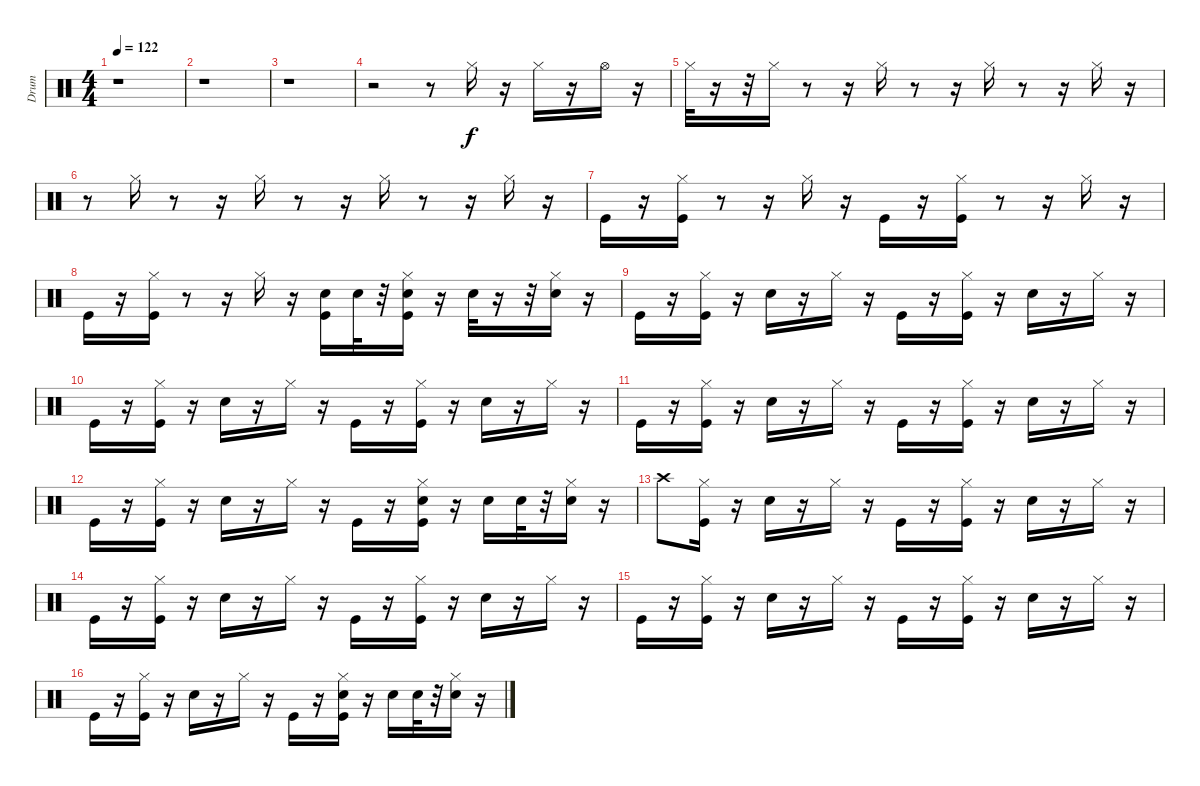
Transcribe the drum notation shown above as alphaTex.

\track ("Drum" "Drum") {instrument percussion}
\staff {score}
\articulation defaults
\ts (4 4)
\tempo 122
\clef neutral
\ks c
r.1{dy f} |
r.1 |
r.1 |
r.2 r.8 "Hi-Hat (closed)".16 r.16 "Hi-Hat (closed)".16 r.16 "Hi-Hat (open)".16 r.16 |
"Hi-Hat (closed)".32 r.16 r.32 "Hi-Hat (closed)".16 r.8 r.16 "Hi-Hat (closed)".16 r.8 r.16 "Hi-Hat (closed)".16 r.8 r.16 "Hi-Hat (closed)".16 r.16 |
r.8 "Hi-Hat (closed)".16 r.8 r.16 "Hi-Hat (closed)".16 r.8 r.16 "Hi-Hat (closed)".16 r.8 r.16 "Hi-Hat (closed)".16 r.16 |
"Kick (hit)".16 r.16 ("Kick (hit)" "Hi-Hat (closed)").16 r.8 r.16 "Hi-Hat (closed)".16 r.16 "Kick (hit)".16 r.16 ("Kick (hit)" "Hi-Hat (closed)").16 r.8 r.16 "Hi-Hat (closed)".16 r.16 |
"Kick (hit)".16 r.16 ("Kick (hit)" "Hi-Hat (closed)").16 r.8 r.16 "Hi-Hat (closed)".16 r.16 ("Snare (hit) 2" "Kick (hit)").16 "Snare (hit) 2".32 r.32 ("Snare (hit) 2" "Kick (hit)" "Hi-Hat (closed)").16 r.16 "Snare (hit) 2".32 r.16 r.32 ("Snare (hit) 2" "Hi-Hat (closed)").16 r.16 |
"Kick (hit)".16 r.16 ("Kick (hit)" "Hi-Hat (closed)").16 r.16 "Snare (hit) 2".16 r.16 "Hi-Hat (closed)".16 r.16 "Kick (hit)".16 r.16 ("Kick (hit)" "Hi-Hat (closed)").16 r.16 "Snare (hit) 2".16 r.16 "Hi-Hat (closed)".16 r.16 |
"Kick (hit)".16 r.16 ("Kick (hit)" "Hi-Hat (closed)").16 r.16 "Snare (hit) 2".16 r.16 "Hi-Hat (closed)".16 r.16 "Kick (hit)".16 r.16 ("Kick (hit)" "Hi-Hat (closed)").16 r.16 "Snare (hit) 2".16 r.16 "Hi-Hat (closed)".16 r.16 |
"Kick (hit)".16 r.16 ("Kick (hit)" "Hi-Hat (closed)").16 r.16 "Snare (hit) 2".16 r.16 "Hi-Hat (closed)".16 r.16 "Kick (hit)".16 r.16 ("Kick (hit)" "Hi-Hat (closed)").16 r.16 "Snare (hit) 2".16 r.16 "Hi-Hat (closed)".16 r.16 |
"Kick (hit)".16 r.16 ("Kick (hit)" "Hi-Hat (closed)").16 r.16 "Snare (hit) 2".16 r.16 "Hi-Hat (closed)".16 r.16 "Kick (hit)".16 r.16 ("Snare (hit) 2" "Kick (hit)" "Hi-Hat (closed)").16 r.16 "Snare (hit) 2".16 "Snare (hit) 2".32 r.32 ("Snare (hit) 2" "Hi-Hat (closed)").16 r.16 |
"Crash high (hit)".8 ("Kick (hit)" "Hi-Hat (closed)").16 r.16 "Snare (hit) 2".16 r.16 "Hi-Hat (closed)".16 r.16 "Kick (hit)".16 r.16 ("Kick (hit)" "Hi-Hat (closed)").16 r.16 "Snare (hit) 2".16 r.16 "Hi-Hat (closed)".16 r.16 |
"Kick (hit)".16 r.16 ("Kick (hit)" "Hi-Hat (closed)").16 r.16 "Snare (hit) 2".16 r.16 "Hi-Hat (closed)".16 r.16 "Kick (hit)".16 r.16 ("Kick (hit)" "Hi-Hat (closed)").16 r.16 "Snare (hit) 2".16 r.16 "Hi-Hat (closed)".16 r.16 |
"Kick (hit)".16 r.16 ("Kick (hit)" "Hi-Hat (closed)").16 r.16 "Snare (hit) 2".16 r.16 "Hi-Hat (closed)".16 r.16 "Kick (hit)".16 r.16 ("Kick (hit)" "Hi-Hat (closed)").16 r.16 "Snare (hit) 2".16 r.16 "Hi-Hat (closed)".16 r.16 |
"Kick (hit)".16 r.16 ("Kick (hit)" "Hi-Hat (closed)").16 r.16 "Snare (hit) 2".16 r.16 "Hi-Hat (closed)".16 r.16 "Kick (hit)".16 r.16 ("Snare (hit) 2" "Kick (hit)" "Hi-Hat (closed)").16 r.16 "Snare (hit) 2".16 "Snare (hit) 2".32 r.32 ("Snare (hit) 2" "Hi-Hat (closed)").16 r.16
